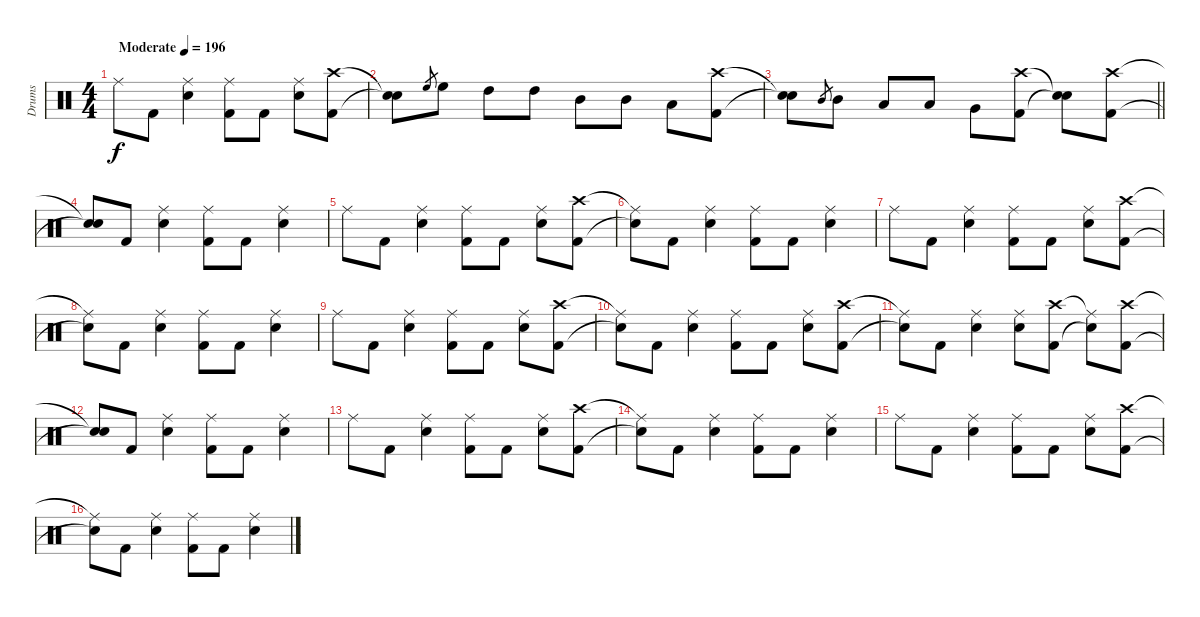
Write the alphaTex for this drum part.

\track ("Drums" "Drums") {instrument percussion}
\staff {score}
\articulation defaults
\ts (4 4)
\tempo (196 "Moderate")
\clef neutral
\ks c "Ride (middle)".8{dy f} "Kick (hit) 2".8
("Ride (middle)" "Snare (hit) 2").4 ("Ride (middle)" "Kick (hit) 2").8 "Kick (hit) 2".8 ("Ride (middle)" "Snare (hit) 2").8 ("Crash high (hit)" "Kick (hit) 2").8 |
("Snare (hit)"{t} "Snare (hit)"{t}).8 "High Floor Tom (hit)".8{gr} "High Floor Tom (hit)".8 "High Tom (hit)".8 "High Tom (hit)".8 "Mid Tom (hit)".8 "Mid Tom (hit)".8 "Low Tom (hit)".8 ("Crash high (hit)" "Kick (hit) 2").8 |
\barLineRight lightlight
("Snare (hit)"{t} "Snare (hit)"{t}).8 "Mid Tom (hit)".8{gr} "Mid Tom (hit)".8 "Low Tom (hit)".8 "Low Tom (hit)".8 "Very Low Tom (hit)".8 ("Crash high (hit)" "Kick (hit) 2").8 ("Snare (hit)"{t} "Snare (hit)"{t}).8 ("Crash high (hit)" "Kick (hit) 2").8 |
("Snare (hit)"{t} "Snare (hit)"{t}).8 "Kick (hit) 2".8 ("Ride (middle)" "Snare (hit) 2").4 ("Ride (middle)" "Kick (hit) 2").8 "Kick (hit) 2".8 ("Ride (middle)" "Snare (hit) 2").4 |
"Ride (middle)".8 "Kick (hit) 2".8 ("Ride (middle)" "Snare (hit) 2").4 ("Ride (middle)" "Kick (hit) 2").8 "Kick (hit) 2".8 ("Ride (middle)" "Snare (hit) 2").8 ("Crash high (hit)" "Kick (hit) 2").8 |
("Ride (middle)"{t} "Snare (hit)"{t}).8 "Kick (hit) 2".8 ("Ride (middle)" "Snare (hit) 2").4 ("Ride (middle)" "Kick (hit) 2").8 "Kick (hit) 2".8 ("Ride (middle)" "Snare (hit) 2").4 |
"Ride (middle)".8 "Kick (hit) 2".8 ("Ride (middle)" "Snare (hit) 2").4 ("Ride (middle)" "Kick (hit) 2").8 "Kick (hit) 2".8 ("Ride (middle)" "Snare (hit) 2").8 ("Crash high (hit)" "Kick (hit) 2").8 |
("Ride (middle)"{t} "Snare (hit)"{t}).8 "Kick (hit) 2".8 ("Ride (middle)" "Snare (hit) 2").4 ("Ride (middle)" "Kick (hit) 2").8 "Kick (hit) 2".8 ("Ride (middle)" "Snare (hit) 2").4 |
"Ride (middle)".8 "Kick (hit) 2".8 ("Ride (middle)" "Snare (hit) 2").4 ("Ride (middle)" "Kick (hit) 2").8 "Kick (hit) 2".8 ("Ride (middle)" "Snare (hit) 2").8 ("Crash high (hit)" "Kick (hit) 2").8 |
("Ride (middle)"{t} "Snare (hit)"{t}).8 "Kick (hit) 2".8 ("Ride (middle)" "Snare (hit) 2").4 ("Ride (middle)" "Kick (hit) 2").8 "Kick (hit) 2".8 ("Ride (middle)" "Snare (hit) 2").8 ("Crash high (hit)" "Kick (hit) 2").8 |
("Ride (middle)"{t} "Snare (hit)"{t}).8 "Kick (hit) 2".8 ("Ride (middle)" "Snare (hit) 2").4 ("Ride (middle)" "Snare (hit) 2").8 ("Crash high (hit)" "Kick (hit) 2").8 ("Ride (middle)"{t} "Snare (hit)"{t}).8 ("Crash high (hit)" "Kick (hit) 2").8 |
("Snare (hit)"{t} "Snare (hit)"{t}).8 "Kick (hit) 2".8 ("Ride (middle)" "Snare (hit) 2").4 ("Ride (middle)" "Kick (hit) 2").8 "Kick (hit) 2".8 ("Ride (middle)" "Snare (hit) 2").4 |
"Ride (middle)".8 "Kick (hit) 2".8 ("Ride (middle)" "Snare (hit) 2").4 ("Ride (middle)" "Kick (hit) 2").8 "Kick (hit) 2".8 ("Ride (middle)" "Snare (hit) 2").8 ("Crash high (hit)" "Kick (hit) 2").8 |
("Ride (middle)"{t} "Snare (hit)"{t}).8 "Kick (hit) 2".8 ("Ride (middle)" "Snare (hit) 2").4 ("Ride (middle)" "Kick (hit) 2").8 "Kick (hit) 2".8 ("Ride (middle)" "Snare (hit) 2").4 |
"Ride (middle)".8 "Kick (hit) 2".8 ("Ride (middle)" "Snare (hit) 2").4 ("Ride (middle)" "Kick (hit) 2").8 "Kick (hit) 2".8 ("Ride (middle)" "Snare (hit) 2").8 ("Crash high (hit)" "Kick (hit) 2").8 |
("Ride (middle)"{t} "Snare (hit)"{t}).8 "Kick (hit) 2".8 ("Ride (middle)" "Snare (hit) 2").4 ("Ride (middle)" "Kick (hit) 2").8 "Kick (hit) 2".8 ("Ride (middle)" "Snare (hit) 2").4
